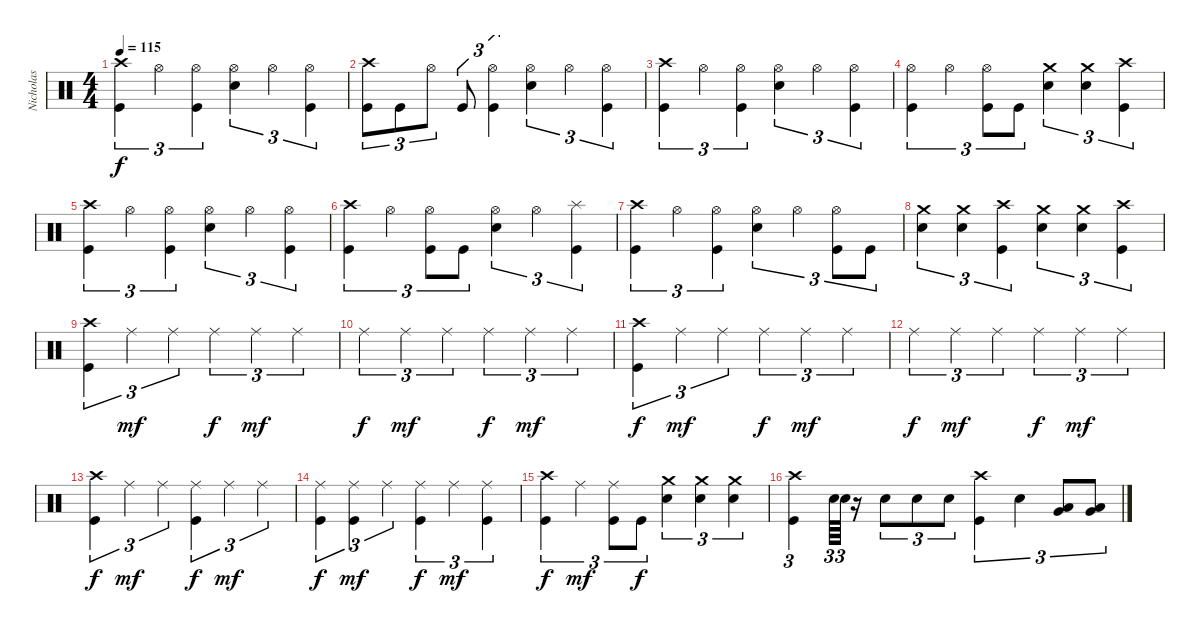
\track ("Nicholas" "Nicholas") {instrument percussion}
\staff {score}
\articulation defaults
\ts (4 4)
\tempo 115
\clef neutral
\ks c
("Crash high (hit)" "Kick (hit)").4{tu (3 2) dy f} "Hi-Hat (open)".4{tu (3 2)} ("Hi-Hat (open)" "Kick (hit)").4{tu (3 2)} ("Hi-Hat (open)" "Electric Snare (hit)").4{tu (3 2)} "Hi-Hat (open)".4{tu (3 2)} ("Hi-Hat (open)" "Kick (hit)").4{tu (3 2)} |
("Crash high (hit)" "Kick (hit)").8{tu (3 2)} "Kick (hit)".8{tu (3 2)} "Hi-Hat (open)".8{tu (3 2)} "Kick (hit)".8{tu (3 2)} ("Hi-Hat (open)" "Kick (hit)").4{tu (3 2)} ("Hi-Hat (open)" "Electric Snare (hit)").4{tu (3 2)} "Hi-Hat (open)".4{tu (3 2)} ("Hi-Hat (open)" "Kick (hit)").4{tu (3 2)} |
("Crash high (hit)" "Kick (hit)").4{tu (3 2)} "Hi-Hat (open)".4{tu (3 2)} ("Hi-Hat (open)" "Kick (hit)").4{tu (3 2)} ("Hi-Hat (open)" "Electric Snare (hit)").4{tu (3 2)} "Hi-Hat (open)".4{tu (3 2)} ("Hi-Hat (open)" "Kick (hit)").4{tu (3 2)} |
("Hi-Hat (open)" "Kick (hit)").4{tu (3 2)} "Hi-Hat (open)".4{tu (3 2)} ("Hi-Hat (open)" "Kick (hit)").8{tu (3 2)} "Kick (hit)".8{tu (3 2)} ("Crash medium (hit)" "Electric Snare (hit)").4{tu (3 2)} ("Crash medium (hit)" "Electric Snare (hit)").4{tu (3 2)} ("Crash high (hit)" "Kick (hit)").4{tu (3 2)} |
("Crash high (hit)" "Kick (hit)").4{tu (3 2)} "Hi-Hat (open)".4{tu (3 2)} ("Hi-Hat (open)" "Kick (hit)").4{tu (3 2)} ("Hi-Hat (open)" "Electric Snare (hit)").4{tu (3 2)} "Hi-Hat (open)".4{tu (3 2)} ("Hi-Hat (open)" "Kick (hit)").4{tu (3 2)} |
("Crash high (hit)" "Kick (hit)").4{tu (3 2)} "Hi-Hat (open)".4{tu (3 2)} ("Hi-Hat (open)" "Kick (hit)").8{tu (3 2)} "Kick (hit)".8{tu (3 2)} ("Hi-Hat (open)" "Electric Snare (hit)").4{tu (3 2)} "Hi-Hat (open)".4{tu (3 2)} ("Splash (hit)" "Kick (hit)").4{tu (3 2)} |
("Crash high (hit)" "Kick (hit)").4{tu (3 2)} "Hi-Hat (open)".4{tu (3 2)} ("Hi-Hat (open)" "Kick (hit)").4{tu (3 2)} ("Hi-Hat (open)" "Electric Snare (hit)").4{tu (3 2)} "Hi-Hat (open)".4{tu (3 2)} ("Hi-Hat (open)" "Kick (hit)").8{tu (3 2)} "Kick (hit)".8{tu (3 2)} |
("Crash medium (hit)" "Electric Snare (hit)").4{tu (3 2)} ("Crash medium (hit)" "Electric Snare (hit)").4{tu (3 2)} ("Crash high (hit)" "Kick (hit)").4{tu (3 2)} ("Crash medium (hit)" "Electric Snare (hit)").4{tu (3 2)} ("Crash medium (hit)" "Electric Snare (hit)").4{tu (3 2)} ("Crash high (hit)" "Kick (hit)").4{tu (3 2)} |
("Crash high (hit)" "Kick (hit)").4{tu (3 2)} "Ride (middle)".4{tu (3 2) dy mf} "Ride (middle)".4{tu (3 2)} "Ride (middle)".4{tu (3 2) dy f} "Ride (middle)".4{tu (3 2) dy mf} "Ride (middle)".4{tu (3 2)} |
"Ride (middle)".4{tu (3 2) dy f} "Ride (middle)".4{tu (3 2) dy mf} "Ride (middle)".4{tu (3 2)} "Ride (middle)".4{tu (3 2) dy f} "Ride (middle)".4{tu (3 2) dy mf} "Ride (middle)".4{tu (3 2)} |
("Crash high (hit)" "Kick (hit)").4{tu (3 2) dy f} "Ride (middle)".4{tu (3 2) dy mf} "Ride (middle)".4{tu (3 2)} "Ride (middle)".4{tu (3 2) dy f} "Ride (middle)".4{tu (3 2) dy mf} "Ride (middle)".4{tu (3 2)} |
"Ride (middle)".4{tu (3 2) dy f} "Ride (middle)".4{tu (3 2) dy mf} "Ride (middle)".4{tu (3 2)} "Ride (middle)".4{tu (3 2) dy f} "Ride (middle)".4{tu (3 2) dy mf} "Ride (middle)".4{tu (3 2)} |
("Crash high (hit)" "Kick (hit)").4{tu (3 2) dy f} "Ride (middle)".4{tu (3 2) dy mf} "Ride (middle)".4{tu (3 2)} ("Ride (middle)" "Kick (hit)").4{tu (3 2) dy f} "Ride (middle)".4{tu (3 2) dy mf} "Ride (middle)".4{tu (3 2)} |
("Ride (middle)" "Kick (hit)").4{tu (3 2) dy f} ("Ride (middle)" "Kick (hit)").4{tu (3 2) dy mf} "Ride (middle)".4{tu (3 2)} ("Ride (middle)" "Kick (hit)").4{tu (3 2) dy f} "Ride (middle)".4{tu (3 2) dy mf} ("Ride (middle)" "Kick (hit)").4{tu (3 2)} |
("Crash high (hit)" "Kick (hit)").4{tu (3 2) dy f} "Ride (middle)".4{tu (3 2) dy mf} ("Ride (middle)" "Kick (hit)").8{tu (3 2)} "Kick (hit)".8{tu (3 2) dy f} ("Crash medium (hit)" "Electric Snare (hit)").4{tu (3 2)} ("Crash medium (hit)" "Electric Snare (hit)").4{tu (3 2)} ("Crash medium (hit)" "Electric Snare (hit)").4{tu (3 2)} |
("Crash high (hit)" "Kick (hit)").4{tu (3 2)} "Electric Snare (hit)".64{tu (3 2)} "Electric Snare (hit)".64{tu (3 2)} r.16 "Electric Snare (hit)".8{tu (3 2)} "Electric Snare (hit)".8{tu (3 2)} "Electric Snare (hit)".8{tu (3 2)} ("Crash high (hit)" "Kick (hit)").4{tu (3 2)} "Electric Snare (hit)".4{tu (3 2)} ("Low Tom (hit)" "Very Low Tom (hit)").8{tu (3 2) bu 60} ("Low Tom (hit)" "Very Low Tom (hit)").8{tu (3 2) bu 60}
